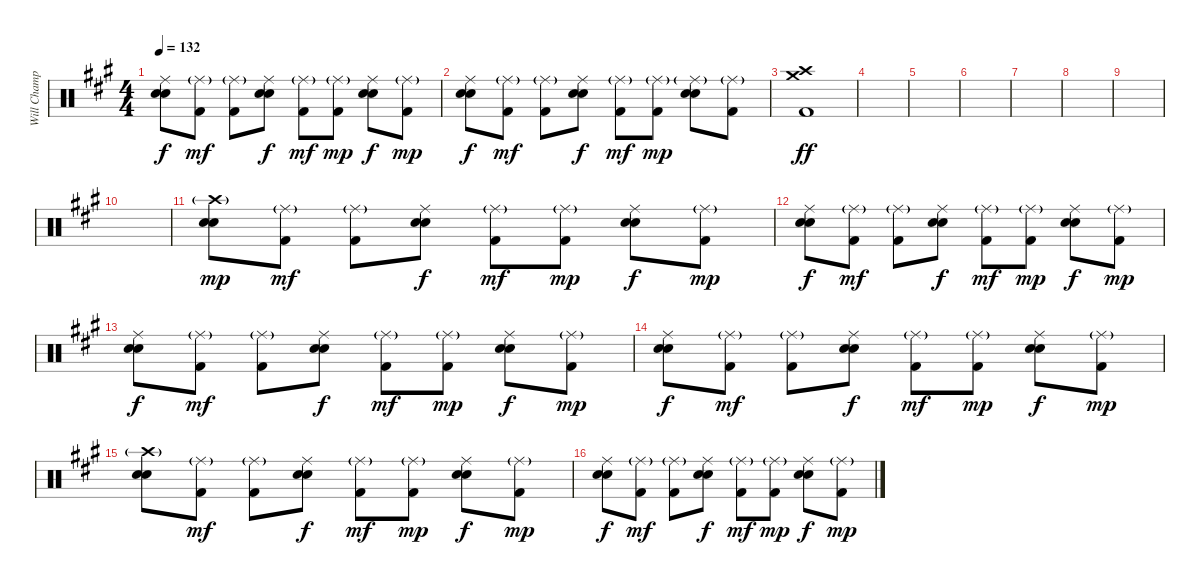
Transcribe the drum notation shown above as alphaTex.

\track ("Will Champion-Drums(percussion)" "Will Champ") {instrument percussion}
\staff {score}
\articulation defaults
\ts (4 4)
\tempo 132
\clef neutral
\ks a
("Ride (middle)" "Electric Snare (hit)" "Snare (hit) 2").8{dy f} ("Ride (middle)"{g} "Kick (hit) 2").8{dy mf} ("Ride (middle)"{g} "Kick (hit) 2").8 ("Ride (middle)" "Electric Snare (hit)" "Snare (hit) 2").8{dy f} ("Ride (middle)"{g} "Kick (hit) 2").8{dy mf} ("Ride (middle)"{g} "Kick (hit) 2").8{dy mp} ("Ride (middle)" "Electric Snare (hit)" "Snare (hit) 2").8{dy f} ("Ride (middle)"{g} "Kick (hit) 2").8{dy mp} |
("Ride (middle)" "Electric Snare (hit)" "Snare (hit) 2").8{dy f} ("Ride (middle)"{g} "Kick (hit) 2").8{dy mf} ("Ride (middle)"{g} "Kick (hit) 2").8 ("Ride (middle)" "Electric Snare (hit)" "Snare (hit) 2").8{dy f} ("Ride (middle)"{g} "Kick (hit) 2").8{dy mf} ("Ride (middle)"{g} "Kick (hit) 2").8{dy mp} ("Ride (middle)"{g} "Electric Snare (hit)" "Snare (hit) 2").8 ("Ride (middle)"{g} "Kick (hit) 2").8 |
("Crash high (hit)" "Crash medium (hit)" "Kick (hit) 2").1{dy ff} |
|
|
|
|
|
|
|
("Crash high (hit)"{g} "Electric Snare (hit)" "Snare (hit) 2").8{dy mp} ("Ride (middle)"{g} "Kick (hit) 2").8{dy mf} ("Ride (middle)"{g} "Kick (hit) 2").8 ("Ride (middle)" "Electric Snare (hit)" "Snare (hit) 2").8{dy f} ("Ride (middle)"{g} "Kick (hit) 2").8{dy mf} ("Ride (middle)"{g} "Kick (hit) 2").8{dy mp} ("Ride (middle)" "Electric Snare (hit)" "Snare (hit) 2").8{dy f} ("Ride (middle)"{g} "Kick (hit) 2").8{dy mp} |
("Ride (middle)" "Electric Snare (hit)" "Snare (hit) 2").8{dy f} ("Ride (middle)"{g} "Kick (hit) 2").8{dy mf} ("Ride (middle)"{g} "Kick (hit) 2").8 ("Ride (middle)" "Electric Snare (hit)" "Snare (hit) 2").8{dy f} ("Ride (middle)"{g} "Kick (hit) 2").8{dy mf} ("Ride (middle)"{g} "Kick (hit) 2").8{dy mp} ("Ride (middle)" "Electric Snare (hit)" "Snare (hit) 2").8{dy f} ("Ride (middle)"{g} "Kick (hit) 2").8{dy mp} |
("Ride (middle)" "Electric Snare (hit)" "Snare (hit) 2").8{dy f} ("Ride (middle)"{g} "Kick (hit) 2").8{dy mf} ("Ride (middle)"{g} "Kick (hit) 2").8 ("Ride (middle)" "Electric Snare (hit)" "Snare (hit) 2").8{dy f} ("Ride (middle)"{g} "Kick (hit) 2").8{dy mf} ("Ride (middle)"{g} "Kick (hit) 2").8{dy mp} ("Ride (middle)" "Electric Snare (hit)" "Snare (hit) 2").8{dy f} ("Ride (middle)"{g} "Kick (hit) 2").8{dy mp} |
("Ride (middle)" "Electric Snare (hit)" "Snare (hit) 2").8{dy f} ("Ride (middle)"{g} "Kick (hit) 2").8{dy mf} ("Ride (middle)"{g} "Kick (hit) 2").8 ("Ride (middle)" "Electric Snare (hit)" "Snare (hit) 2").8{dy f} ("Ride (middle)"{g} "Kick (hit) 2").8{dy mf} ("Ride (middle)"{g} "Kick (hit) 2").8{dy mp} ("Ride (middle)" "Electric Snare (hit)" "Snare (hit) 2").8{dy f} ("Ride (middle)"{g} "Kick (hit) 2").8{dy mp} |
("Crash high (hit)"{g} "Electric Snare (hit)" "Snare (hit) 2").8 ("Ride (middle)"{g} "Kick (hit) 2").8{dy mf} ("Ride (middle)"{g} "Kick (hit) 2").8 ("Ride (middle)" "Electric Snare (hit)" "Snare (hit) 2").8{dy f} ("Ride (middle)"{g} "Kick (hit) 2").8{dy mf} ("Ride (middle)"{g} "Kick (hit) 2").8{dy mp} ("Ride (middle)" "Electric Snare (hit)" "Snare (hit) 2").8{dy f} ("Ride (middle)"{g} "Kick (hit) 2").8{dy mp} |
("Ride (middle)" "Electric Snare (hit)" "Snare (hit) 2").8{dy f} ("Ride (middle)"{g} "Kick (hit) 2").8{dy mf} ("Ride (middle)"{g} "Kick (hit) 2").8 ("Ride (middle)" "Electric Snare (hit)" "Snare (hit) 2").8{dy f} ("Ride (middle)"{g} "Kick (hit) 2").8{dy mf} ("Ride (middle)"{g} "Kick (hit) 2").8{dy mp} ("Ride (middle)" "Electric Snare (hit)" "Snare (hit) 2").8{dy f} ("Ride (middle)"{g} "Kick (hit) 2").8{dy mp}
